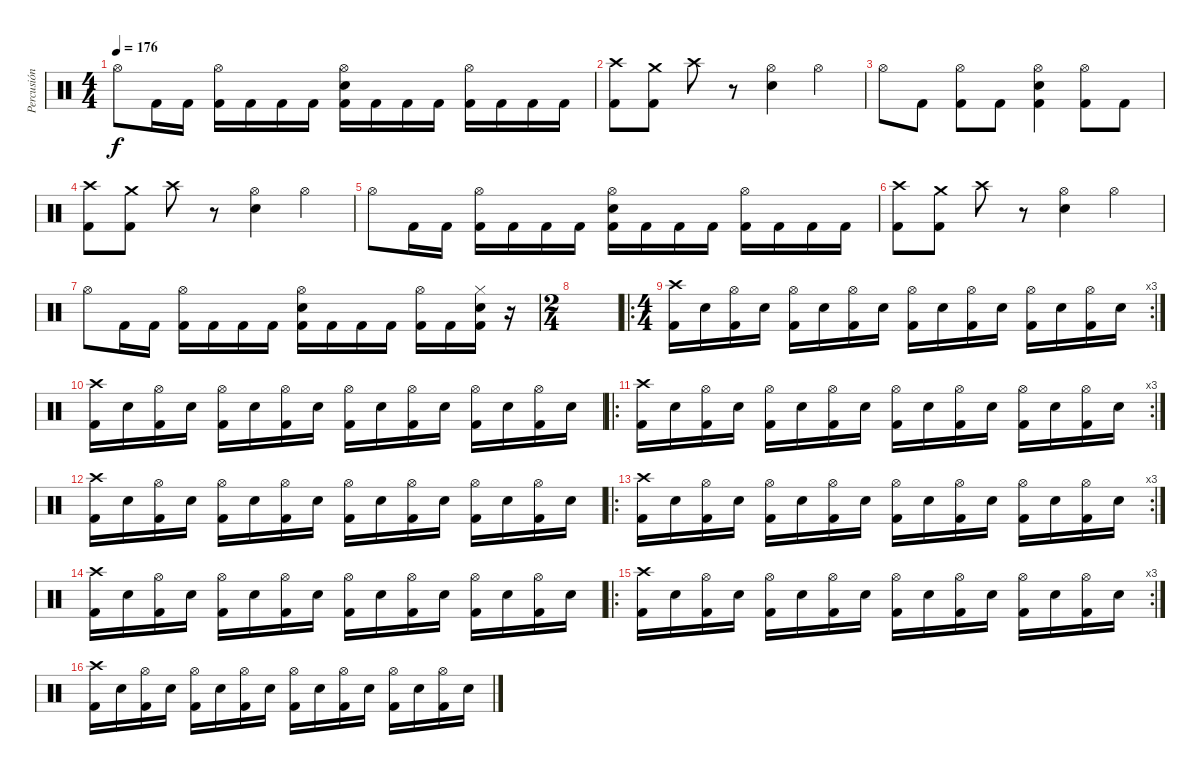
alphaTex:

\track ("Percusión" "Percusión") {instrument percussion}
\staff {score}
\articulation defaults
\ts (4 4)
\tempo 176
\clef neutral
\ks c "Hi-Hat (open)".8{dy f} "Kick (hit) 2".16 "Kick (hit) 2".16
("Hi-Hat (open)" "Kick (hit) 2").16 "Kick (hit) 2".16 "Kick (hit) 2".16 "Kick (hit) 2".16 ("Hi-Hat (open)" "Electric Snare (hit)" "Kick (hit) 2").16 "Kick (hit) 2".16 "Kick (hit) 2".16 "Kick (hit) 2".16 ("Hi-Hat (open)" "Kick (hit) 2").16 "Kick (hit) 2".16 "Kick (hit) 2".16 "Kick (hit) 2".16 |
("Crash high (hit)" "Kick (hit) 2").8 ("Crash medium (hit)" "Kick (hit) 2").8 "Crash high (hit)".8 r.8 ("Hi-Hat (open)" "Electric Snare (hit)").4 "Hi-Hat (open)".4 |
"Hi-Hat (open)".8 "Kick (hit) 2".8 ("Hi-Hat (open)" "Kick (hit) 2").8 "Kick (hit) 2".8 ("Hi-Hat (open)" "Electric Snare (hit)" "Kick (hit) 2").4 ("Hi-Hat (open)" "Kick (hit) 2").8 "Kick (hit) 2".8 |
("Crash high (hit)" "Kick (hit) 2").8 ("Crash medium (hit)" "Kick (hit) 2").8 "Crash high (hit)".8 r.8 ("Hi-Hat (open)" "Electric Snare (hit)").4 "Hi-Hat (open)".4 |
"Hi-Hat (open)".8 "Kick (hit) 2".16 "Kick (hit) 2".16 ("Hi-Hat (open)" "Kick (hit) 2").16 "Kick (hit) 2".16 "Kick (hit) 2".16 "Kick (hit) 2".16 ("Hi-Hat (open)" "Electric Snare (hit)" "Kick (hit) 2").16 "Kick (hit) 2".16 "Kick (hit) 2".16 "Kick (hit) 2".16 ("Hi-Hat (open)" "Kick (hit) 2").16 "Kick (hit) 2".16 "Kick (hit) 2".16 "Kick (hit) 2".16 |
("Crash high (hit)" "Kick (hit) 2").8 ("Crash medium (hit)" "Kick (hit) 2").8 "Crash high (hit)".8 r.8 ("Hi-Hat (open)" "Electric Snare (hit)").4 "Hi-Hat (open)".4 |
"Hi-Hat (open)".8 "Kick (hit) 2".16 "Kick (hit) 2".16 ("Hi-Hat (open)" "Kick (hit) 2").16 "Kick (hit) 2".16 "Kick (hit) 2".16 "Kick (hit) 2".16 ("Hi-Hat (open)" "Electric Snare (hit)" "Kick (hit) 2").16 "Kick (hit) 2".16 "Kick (hit) 2".16 "Kick (hit) 2".16 ("Hi-Hat (open)" "Kick (hit) 2").16 "Kick (hit) 2".16 ("Hi-Hat (closed)" "Electric Snare (hit)" "Kick (hit) 2").16 r.16 |
\ts (2 4)
|
\ro
\rc 3
\ts (4 4)
("Crash high (hit)" "Kick (hit) 2").16 "Electric Snare (hit)".16 ("Hi-Hat (open)" "Kick (hit) 2").16 "Electric Snare (hit)".16 ("Hi-Hat (open)" "Kick (hit) 2").16 "Electric Snare (hit)".16 ("Hi-Hat (open)" "Kick (hit) 2").16 "Electric Snare (hit)".16 ("Hi-Hat (open)" "Kick (hit) 2").16 "Electric Snare (hit)".16 ("Hi-Hat (open)" "Kick (hit) 2").16 "Electric Snare (hit)".16 ("Hi-Hat (open)" "Kick (hit) 2").16 "Electric Snare (hit)".16 ("Hi-Hat (open)" "Kick (hit) 2").16 "Electric Snare (hit)".16 |
("Crash high (hit)" "Kick (hit) 2").16 "Electric Snare (hit)".16 ("Hi-Hat (open)" "Kick (hit) 2").16 "Electric Snare (hit)".16 ("Hi-Hat (open)" "Kick (hit) 2").16 "Electric Snare (hit)".16 ("Hi-Hat (open)" "Kick (hit) 2").16 "Electric Snare (hit)".16 ("Hi-Hat (open)" "Kick (hit) 2").16 "Electric Snare (hit)".16 ("Hi-Hat (open)" "Kick (hit) 2").16 "Electric Snare (hit)".16 ("Hi-Hat (open)" "Kick (hit) 2").16 "Electric Snare (hit)".16 ("Hi-Hat (open)" "Kick (hit) 2").16 "Electric Snare (hit)".16 |
\ro
\rc 3
("Crash high (hit)" "Kick (hit) 2").16 "Electric Snare (hit)".16 ("Hi-Hat (open)" "Kick (hit) 2").16 "Electric Snare (hit)".16 ("Hi-Hat (open)" "Kick (hit) 2").16 "Electric Snare (hit)".16 ("Hi-Hat (open)" "Kick (hit) 2").16 "Electric Snare (hit)".16 ("Hi-Hat (open)" "Kick (hit) 2").16 "Electric Snare (hit)".16 ("Hi-Hat (open)" "Kick (hit) 2").16 "Electric Snare (hit)".16 ("Hi-Hat (open)" "Kick (hit) 2").16 "Electric Snare (hit)".16 ("Hi-Hat (open)" "Kick (hit) 2").16 "Electric Snare (hit)".16 |
("Crash high (hit)" "Kick (hit) 2").16 "Electric Snare (hit)".16 ("Hi-Hat (open)" "Kick (hit) 2").16 "Electric Snare (hit)".16 ("Hi-Hat (open)" "Kick (hit) 2").16 "Electric Snare (hit)".16 ("Hi-Hat (open)" "Kick (hit) 2").16 "Electric Snare (hit)".16 ("Hi-Hat (open)" "Kick (hit) 2").16 "Electric Snare (hit)".16 ("Hi-Hat (open)" "Kick (hit) 2").16 "Electric Snare (hit)".16 ("Hi-Hat (open)" "Kick (hit) 2").16 "Electric Snare (hit)".16 ("Hi-Hat (open)" "Kick (hit) 2").16 "Electric Snare (hit)".16 |
\ro
\rc 3
("Crash high (hit)" "Kick (hit) 2").16 "Electric Snare (hit)".16 ("Hi-Hat (open)" "Kick (hit) 2").16 "Electric Snare (hit)".16 ("Hi-Hat (open)" "Kick (hit) 2").16 "Electric Snare (hit)".16 ("Hi-Hat (open)" "Kick (hit) 2").16 "Electric Snare (hit)".16 ("Hi-Hat (open)" "Kick (hit) 2").16 "Electric Snare (hit)".16 ("Hi-Hat (open)" "Kick (hit) 2").16 "Electric Snare (hit)".16 ("Hi-Hat (open)" "Kick (hit) 2").16 "Electric Snare (hit)".16 ("Hi-Hat (open)" "Kick (hit) 2").16 "Electric Snare (hit)".16 |
("Crash high (hit)" "Kick (hit) 2").16 "Electric Snare (hit)".16 ("Hi-Hat (open)" "Kick (hit) 2").16 "Electric Snare (hit)".16 ("Hi-Hat (open)" "Kick (hit) 2").16 "Electric Snare (hit)".16 ("Hi-Hat (open)" "Kick (hit) 2").16 "Electric Snare (hit)".16 ("Hi-Hat (open)" "Kick (hit) 2").16 "Electric Snare (hit)".16 ("Hi-Hat (open)" "Kick (hit) 2").16 "Electric Snare (hit)".16 ("Hi-Hat (open)" "Kick (hit) 2").16 "Electric Snare (hit)".16 ("Hi-Hat (open)" "Kick (hit) 2").16 "Electric Snare (hit)".16 |
\ro
\rc 3
("Crash high (hit)" "Kick (hit) 2").16 "Electric Snare (hit)".16 ("Hi-Hat (open)" "Kick (hit) 2").16 "Electric Snare (hit)".16 ("Hi-Hat (open)" "Kick (hit) 2").16 "Electric Snare (hit)".16 ("Hi-Hat (open)" "Kick (hit) 2").16 "Electric Snare (hit)".16 ("Hi-Hat (open)" "Kick (hit) 2").16 "Electric Snare (hit)".16 ("Hi-Hat (open)" "Kick (hit) 2").16 "Electric Snare (hit)".16 ("Hi-Hat (open)" "Kick (hit) 2").16 "Electric Snare (hit)".16 ("Hi-Hat (open)" "Kick (hit) 2").16 "Electric Snare (hit)".16 |
("Crash high (hit)" "Kick (hit) 2").16 "Electric Snare (hit)".16 ("Hi-Hat (open)" "Kick (hit) 2").16 "Electric Snare (hit)".16 ("Hi-Hat (open)" "Kick (hit) 2").16 "Electric Snare (hit)".16 ("Hi-Hat (open)" "Kick (hit) 2").16 "Electric Snare (hit)".16 ("Hi-Hat (open)" "Kick (hit) 2").16 "Electric Snare (hit)".16 ("Hi-Hat (open)" "Kick (hit) 2").16 "Electric Snare (hit)".16 ("Hi-Hat (open)" "Kick (hit) 2").16 "Electric Snare (hit)".16 ("Hi-Hat (open)" "Kick (hit) 2").16 "Electric Snare (hit)".16
